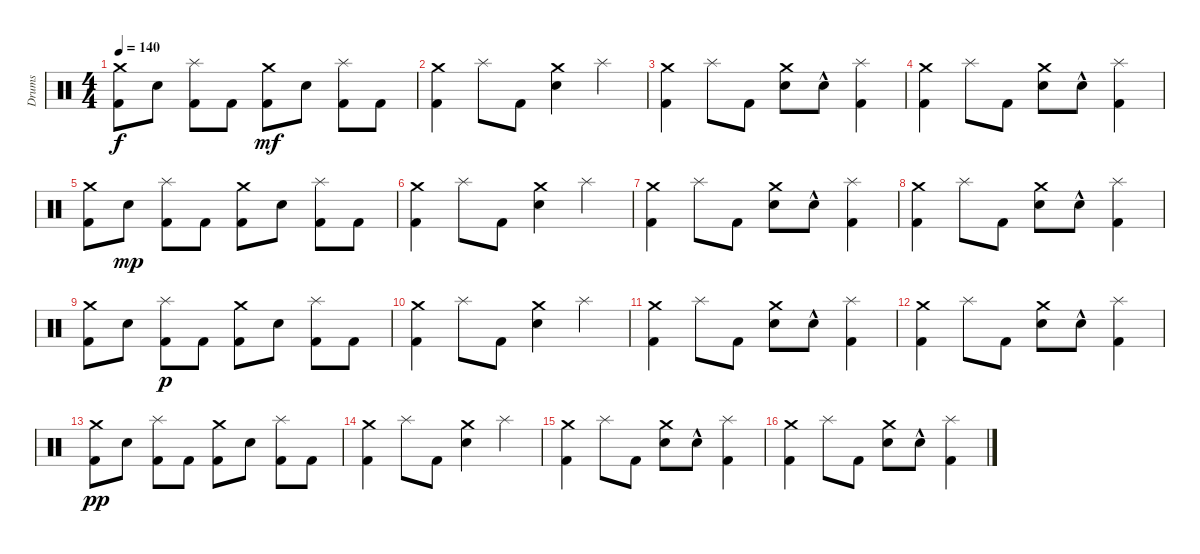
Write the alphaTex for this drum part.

\track ("Drums" "Drums") {instrument percussion}
\staff {score}
\articulation defaults
\ts (4 4)
\tempo 140
\clef neutral
\ks c
("Crash medium (hit)" "Kick (hit) 2").8{dy f} "Snare (hit) 2".8 ("Splash (hit)" "Kick (hit) 2").8 "Kick (hit) 2".8 ("Crash medium (hit)" "Kick (hit) 2").8{dy mf} "Snare (hit) 2".8 ("Splash (hit)" "Kick (hit) 2").8 "Kick (hit) 2".8 |
("Crash medium (hit)" "Kick (hit) 2").4 "Splash (hit)".8 "Kick (hit) 2".8 ("Crash medium (hit)" "Snare (hit) 2").4 "Splash (hit)".4 |
("Crash medium (hit)" "Kick (hit) 2").4 "Splash (hit)".8 "Kick (hit) 2".8 ("Crash medium (hit)" "Snare (hit) 2").8 "Snare (hit) 2"{hac}.8 ("Splash (hit)" "Kick (hit) 2").4 |
("Crash medium (hit)" "Kick (hit) 2").4 "Splash (hit)".8 "Kick (hit) 2".8 ("Crash medium (hit)" "Snare (hit) 2").8 "Snare (hit) 2"{hac}.8 ("Splash (hit)" "Kick (hit) 2").4 |
("Crash medium (hit)" "Kick (hit) 2").8 "Snare (hit) 2".8{dy mp} ("Splash (hit)" "Kick (hit) 2").8 "Kick (hit) 2".8 ("Crash medium (hit)" "Kick (hit) 2").8 "Snare (hit) 2".8 ("Splash (hit)" "Kick (hit) 2").8 "Kick (hit) 2".8 |
("Crash medium (hit)" "Kick (hit) 2").4 "Splash (hit)".8 "Kick (hit) 2".8 ("Crash medium (hit)" "Snare (hit) 2").4 "Splash (hit)".4 |
("Crash medium (hit)" "Kick (hit) 2").4 "Splash (hit)".8 "Kick (hit) 2".8 ("Crash medium (hit)" "Snare (hit) 2").8 "Snare (hit) 2"{hac}.8 ("Splash (hit)" "Kick (hit) 2").4 |
("Crash medium (hit)" "Kick (hit) 2").4 "Splash (hit)".8 "Kick (hit) 2".8 ("Crash medium (hit)" "Snare (hit) 2").8 "Snare (hit) 2"{hac}.8 ("Splash (hit)" "Kick (hit) 2").4 |
("Crash medium (hit)" "Kick (hit) 2").8 "Snare (hit) 2".8 ("Splash (hit)" "Kick (hit) 2").8{dy p} "Kick (hit) 2".8 ("Crash medium (hit)" "Kick (hit) 2").8 "Snare (hit) 2".8 ("Splash (hit)" "Kick (hit) 2").8 "Kick (hit) 2".8 |
("Crash medium (hit)" "Kick (hit) 2").4 "Splash (hit)".8 "Kick (hit) 2".8 ("Crash medium (hit)" "Snare (hit) 2").4 "Splash (hit)".4 |
("Crash medium (hit)" "Kick (hit) 2").4 "Splash (hit)".8 "Kick (hit) 2".8 ("Crash medium (hit)" "Snare (hit) 2").8 "Snare (hit) 2"{hac}.8 ("Splash (hit)" "Kick (hit) 2").4 |
("Crash medium (hit)" "Kick (hit) 2").4 "Splash (hit)".8 "Kick (hit) 2".8 ("Crash medium (hit)" "Snare (hit) 2").8 "Snare (hit) 2"{hac}.8 ("Splash (hit)" "Kick (hit) 2").4 |
("Crash medium (hit)" "Kick (hit) 2").8{dy pp} "Snare (hit) 2".8 ("Splash (hit)" "Kick (hit) 2").8 "Kick (hit) 2".8 ("Crash medium (hit)" "Kick (hit) 2").8 "Snare (hit) 2".8 ("Splash (hit)" "Kick (hit) 2").8 "Kick (hit) 2".8 |
("Crash medium (hit)" "Kick (hit) 2").4 "Splash (hit)".8 "Kick (hit) 2".8 ("Crash medium (hit)" "Snare (hit) 2").4 "Splash (hit)".4 |
("Crash medium (hit)" "Kick (hit) 2").4 "Splash (hit)".8 "Kick (hit) 2".8 ("Crash medium (hit)" "Snare (hit) 2").8 "Snare (hit) 2"{hac}.8 ("Splash (hit)" "Kick (hit) 2").4 |
("Crash medium (hit)" "Kick (hit) 2").4 "Splash (hit)".8 "Kick (hit) 2".8 ("Crash medium (hit)" "Snare (hit) 2").8 "Snare (hit) 2"{hac}.8 ("Splash (hit)" "Kick (hit) 2").4
